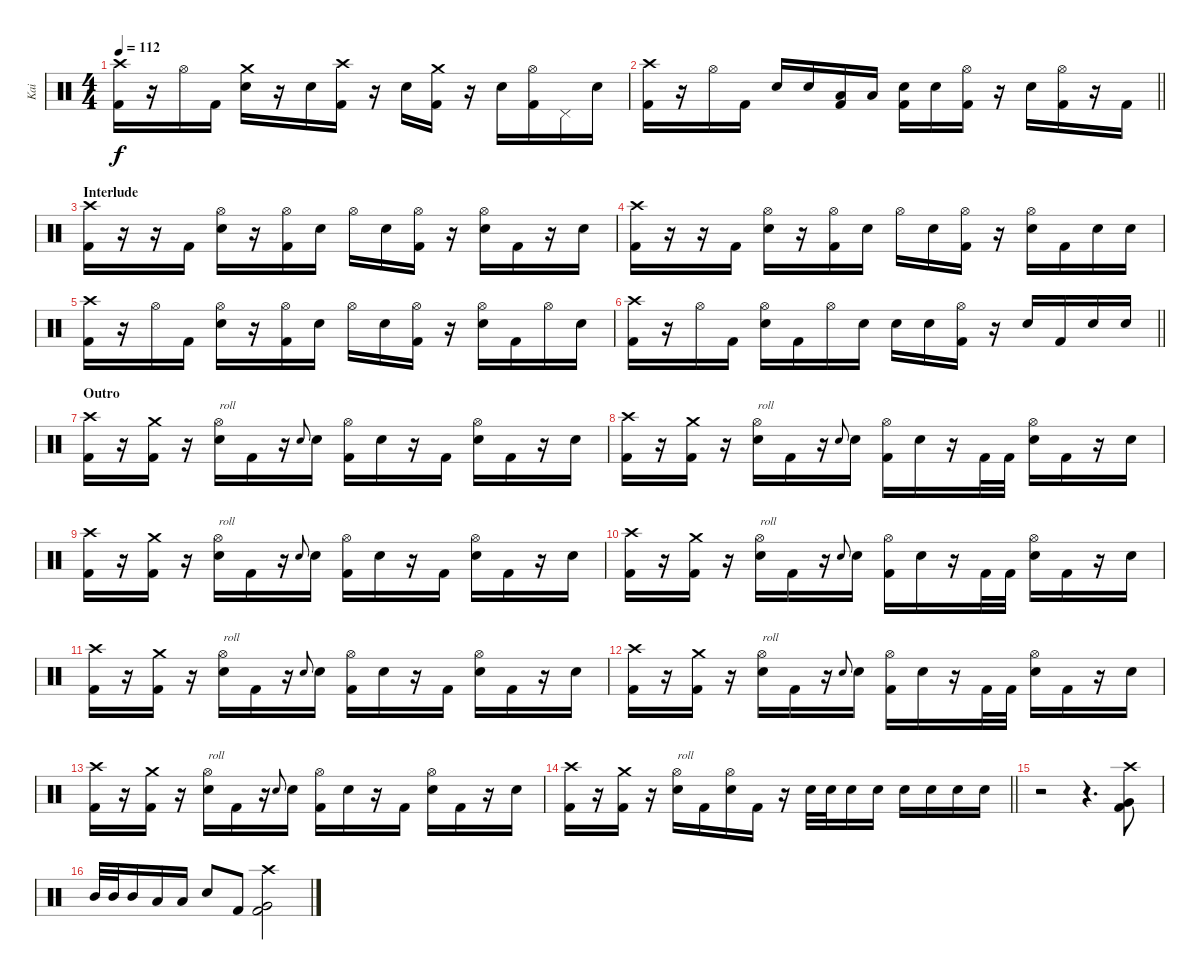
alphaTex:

\track ("Kai" "Kai") {mute instrument percussion}
\staff {score}
\articulation defaults
\ts (4 4)
\tempo 112
\clef neutral
\ks c
("Crash high (hit)" "Kick (hit) 2").16{dy f} r.16 "Hi-Hat (open)".16 "Kick (hit) 2".16 ("Crash medium (hit)" "Electric Snare (hit)").16 r.16 "Electric Snare (hit)".16 ("Crash high (hit)" "Kick (hit) 2").16 r.16 "Electric Snare (hit)".16 ("Crash medium (hit)" "Kick (hit) 2").16 r.16 "Electric Snare (hit)".16 ("Hi-Hat (open)" "Kick (hit) 2").16 "Pedal Hi-Hat (hit)".16 "Electric Snare (hit)".16 |
\barLineRight lightlight
("Crash high (hit)" "Kick (hit) 2").16 r.16 "Hi-Hat (open)".16 "Kick (hit) 2".16 "Electric Snare (hit)".16 "Electric Snare (hit)".16 ("Low Tom (hit)" "Kick (hit) 2").16 "Low Tom (hit)".16 ("Electric Snare (hit)" "Kick (hit) 2").16 "Electric Snare (hit)".16 ("Hi-Hat (open)" "Kick (hit) 2").16 r.16 "Electric Snare (hit)".16 ("Hi-Hat (open)" "Kick (hit) 2").16 r.16 "Kick (hit) 2".16 |
\section ("" "Interlude")
("Crash high (hit)" "Kick (hit) 2").16 r.16 r.16 "Kick (hit) 2".16 ("Hi-Hat (open)" "Electric Snare (hit)").16 r.16 ("Hi-Hat (open)" "Kick (hit) 2").16 "Electric Snare (hit)".16 "Hi-Hat (open)".16 "Electric Snare (hit)".16 ("Hi-Hat (open)" "Kick (hit) 2").16 r.16 ("Hi-Hat (open)" "Electric Snare (hit)").16 "Kick (hit) 2".16 r.16 "Electric Snare (hit)".16 |
("Crash high (hit)" "Kick (hit) 2").16 r.16 r.16 "Kick (hit) 2".16 ("Hi-Hat (open)" "Electric Snare (hit)").16 r.16 ("Hi-Hat (open)" "Kick (hit) 2").16 "Electric Snare (hit)".16 "Hi-Hat (open)".16 "Electric Snare (hit)".16 ("Hi-Hat (open)" "Kick (hit) 2").16 r.16 ("Hi-Hat (open)" "Electric Snare (hit)").16 "Kick (hit) 2".16 "Electric Snare (hit)".16 "Electric Snare (hit)".16 |
("Crash high (hit)" "Kick (hit) 2").16 r.16 "Hi-Hat (open)".16 "Kick (hit) 2".16 ("Hi-Hat (open)" "Electric Snare (hit)").16 r.16 ("Hi-Hat (open)" "Kick (hit) 2").16 "Electric Snare (hit)".16 "Hi-Hat (open)".16 "Electric Snare (hit)".16 ("Hi-Hat (open)" "Kick (hit) 2").16 r.16 ("Hi-Hat (open)" "Electric Snare (hit)").16 "Kick (hit) 2".16 "Hi-Hat (open)".16 "Electric Snare (hit)".16 |
\barLineRight lightlight
("Crash high (hit)" "Kick (hit) 2").16 r.16 "Hi-Hat (open)".16 "Kick (hit) 2".16 ("Hi-Hat (open)" "Electric Snare (hit)").16 "Kick (hit) 2".16 "Hi-Hat (open)".16 "Electric Snare (hit)".16 "Electric Snare (hit)".16 "Electric Snare (hit)".16 ("Hi-Hat (open)" "Kick (hit) 2").16 r.16 "Electric Snare (hit)".16 "Kick (hit) 2".16 "Electric Snare (hit)".16 "Electric Snare (hit)".16 |
\section ("" "Outro")
("Crash high (hit)" "Kick (hit) 2").16 r.16 ("Crash medium (hit)" "Kick (hit) 2").16 r.16 ("Hi-Hat (open)" "Electric Snare (hit)").16{txt "roll"} "Kick (hit) 2".16 r.16 "Electric Snare (hit)".8{gr onbeat} "Electric Snare (hit)".16 ("Hi-Hat (open)" "Kick (hit) 2").16 "Electric Snare (hit)".16 r.16 "Kick (hit) 2".16 ("Hi-Hat (open)" "Electric Snare (hit)").16 "Kick (hit) 2".16 r.16 "Electric Snare (hit)".16 |
("Crash high (hit)" "Kick (hit) 2").16 r.16 ("Crash medium (hit)" "Kick (hit) 2").16 r.16 ("Hi-Hat (open)" "Electric Snare (hit)").16{txt "roll"} "Kick (hit) 2".16 r.16 "Electric Snare (hit)".8{gr onbeat} "Electric Snare (hit)".16 ("Hi-Hat (open)" "Kick (hit) 2").16 "Electric Snare (hit)".16 r.16 "Kick (hit) 2".32 "Kick (hit) 2".32 ("Hi-Hat (open)" "Electric Snare (hit)").16 "Kick (hit) 2".16 r.16 "Electric Snare (hit)".16 |
("Crash high (hit)" "Kick (hit) 2").16 r.16 ("Crash medium (hit)" "Kick (hit) 2").16 r.16 ("Hi-Hat (open)" "Electric Snare (hit)").16{txt "roll"} "Kick (hit) 2".16 r.16 "Electric Snare (hit)".8{gr onbeat} "Electric Snare (hit)".16 ("Hi-Hat (open)" "Kick (hit) 2").16 "Electric Snare (hit)".16 r.16 "Kick (hit) 2".16 ("Hi-Hat (open)" "Electric Snare (hit)").16 "Kick (hit) 2".16 r.16 "Electric Snare (hit)".16 |
("Crash high (hit)" "Kick (hit) 2").16 r.16 ("Crash medium (hit)" "Kick (hit) 2").16 r.16 ("Hi-Hat (open)" "Electric Snare (hit)").16{txt "roll"} "Kick (hit) 2".16 r.16 "Electric Snare (hit)".8{gr onbeat} "Electric Snare (hit)".16 ("Hi-Hat (open)" "Kick (hit) 2").16 "Electric Snare (hit)".16 r.16 "Kick (hit) 2".32 "Kick (hit) 2".32 ("Hi-Hat (open)" "Electric Snare (hit)").16 "Kick (hit) 2".16 r.16 "Electric Snare (hit)".16 |
("Crash high (hit)" "Kick (hit) 2").16 r.16 ("Crash medium (hit)" "Kick (hit) 2").16 r.16 ("Hi-Hat (open)" "Electric Snare (hit)").16{txt "roll"} "Kick (hit) 2".16 r.16 "Electric Snare (hit)".8{gr onbeat} "Electric Snare (hit)".16 ("Hi-Hat (open)" "Kick (hit) 2").16 "Electric Snare (hit)".16 r.16 "Kick (hit) 2".16 ("Hi-Hat (open)" "Electric Snare (hit)").16 "Kick (hit) 2".16 r.16 "Electric Snare (hit)".16 |
("Crash high (hit)" "Kick (hit) 2").16 r.16 ("Crash medium (hit)" "Kick (hit) 2").16 r.16 ("Hi-Hat (open)" "Electric Snare (hit)").16{txt "roll"} "Kick (hit) 2".16 r.16 "Electric Snare (hit)".8{gr onbeat} "Electric Snare (hit)".16 ("Hi-Hat (open)" "Kick (hit) 2").16 "Electric Snare (hit)".16 r.16 "Kick (hit) 2".32 "Kick (hit) 2".32 ("Hi-Hat (open)" "Electric Snare (hit)").16 "Kick (hit) 2".16 r.16 "Electric Snare (hit)".16 |
("Crash high (hit)" "Kick (hit) 2").16 r.16 ("Crash medium (hit)" "Kick (hit) 2").16 r.16 ("Hi-Hat (open)" "Electric Snare (hit)").16{txt "roll"} "Kick (hit) 2".16 r.16 "Electric Snare (hit)".8{gr onbeat} "Electric Snare (hit)".16 ("Hi-Hat (open)" "Kick (hit) 2").16 "Electric Snare (hit)".16 r.16 "Kick (hit) 2".16 ("Hi-Hat (open)" "Electric Snare (hit)").16 "Kick (hit) 2".16 r.16 "Electric Snare (hit)".16 |
\barLineRight lightlight
("Crash high (hit)" "Kick (hit) 2").16 r.16 ("Crash medium (hit)" "Kick (hit) 2").16 r.16 ("Hi-Hat (open)" "Electric Snare (hit)").16{txt "roll"} "Kick (hit) 2".16 ("Hi-Hat (open)" "Electric Snare (hit)").16 "Kick (hit) 2".16 r.16 "Electric Snare (hit)".32 "Electric Snare (hit)".32 "Electric Snare (hit)".16 "Electric Snare (hit)".16 "Electric Snare (hit)".16 "Electric Snare (hit)".16 "Electric Snare (hit)".16 "Electric Snare (hit)".16 |
\section ("" "")
r.2 r.4{d} ("Crash high (hit)" "Very Low Tom (hit)" "Kick (hit) 2").8 |
"Mid Tom (hit)".32 "Mid Tom (hit)".32 "Mid Tom (hit)".16 "Low Tom (hit)".16 "Low Tom (hit)".16 "Electric Snare (hit)".8 "Kick (hit) 2".8 ("Crash high (hit)" "Very Low Tom (hit)" "Kick (hit) 2").2
